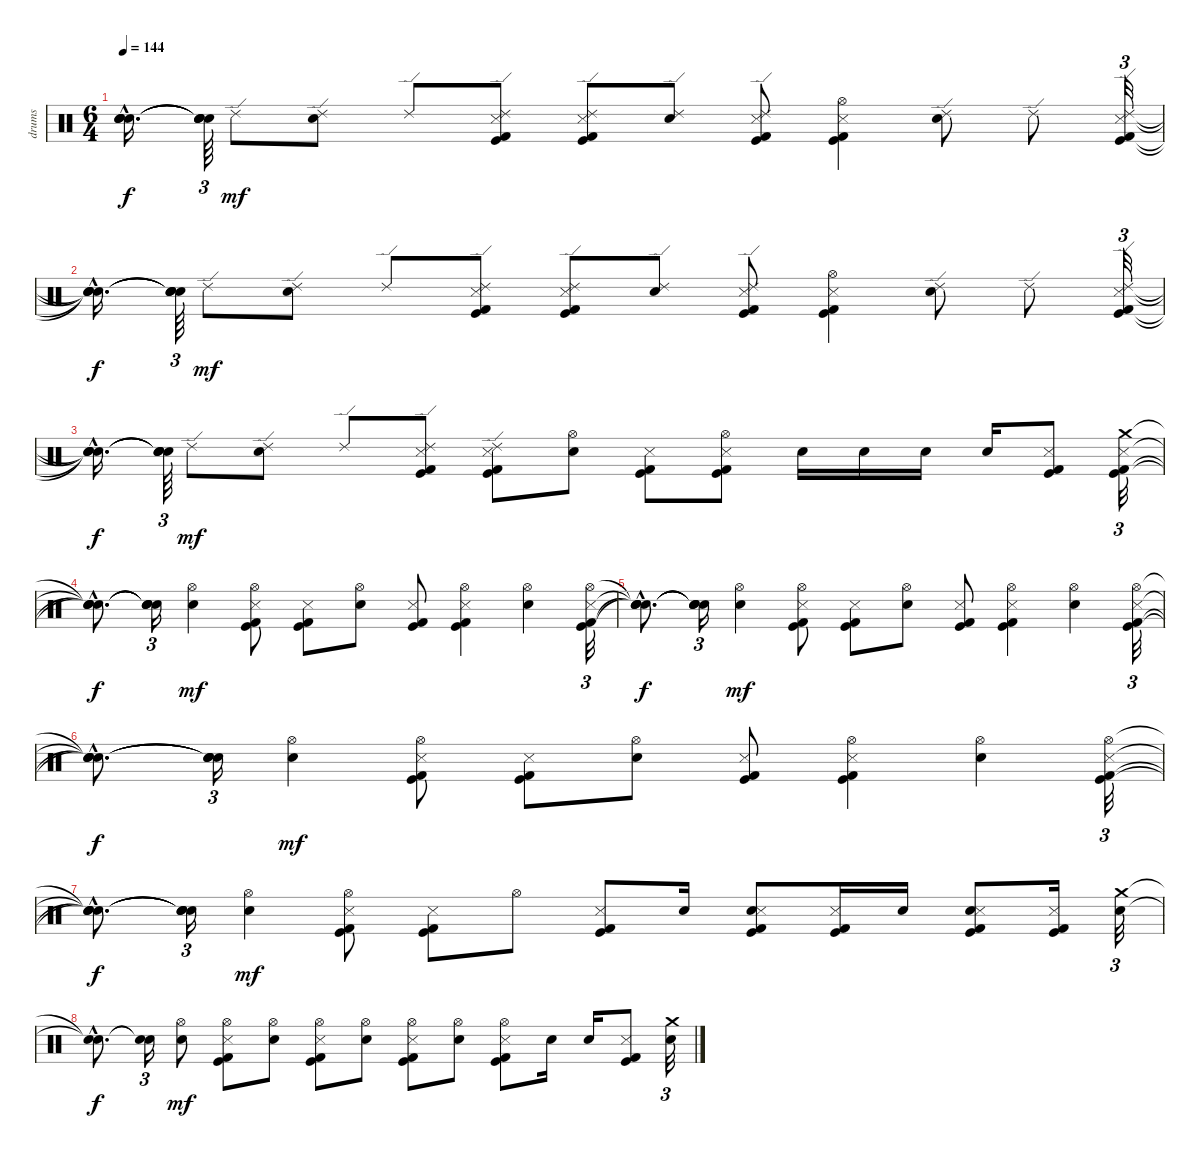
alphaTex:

\track ("drums" "drums") {instrument percussion}
\staff {score}
\articulation defaults
\ts (6 4)
\tempo 144
\clef neutral
\ks c
("Snare (hit)"{hac t} "Snare (hit)"{hac t} "Snare (hit)"{hac t} "Snare (hit)"{hac t}).16{d dy f} ("Snare (hit)"{t} "Snare (hit)"{t} "Snare (hit)"{t} "Snare (hit)"{t}).64{tu (3 2)} "Ride (edge) 2".8{dy mf} ("Snare (hit) 2" "Ride (edge) 2").8 "Ride (edge) 2".8 ("Ride (edge) 2" "Metronome (hit)" "Kick (hit)" "Kick (hit) 2").8 ("Ride (edge) 2" "Metronome (hit)" "Kick (hit)" "Kick (hit) 2").8 ("Snare (hit) 2" "Ride (edge) 2").8 ("Ride (edge) 2" "Metronome (hit)" "Kick (hit)" "Kick (hit) 2").8 ("Hi-Hat (open)" "Metronome (hit)" "Kick (hit)" "Kick (hit) 2").4 ("Snare (hit) 2" "Ride (edge) 2").8 "Ride (edge) 2".8 ("Ride (edge) 2" "Metronome (hit)" "Kick (hit)" "Kick (hit) 2").32{tu (3 2)} |
("Snare (hit)"{hac t} "Snare (hit)"{hac t} "Snare (hit)"{hac t} "Snare (hit)"{hac t}).16{d dy f} ("Snare (hit)"{t} "Snare (hit)"{t} "Snare (hit)"{t} "Snare (hit)"{t}).64{tu (3 2)} "Ride (edge) 2".8{dy mf} ("Snare (hit) 2" "Ride (edge) 2").8 "Ride (edge) 2".8 ("Ride (edge) 2" "Metronome (hit)" "Kick (hit)" "Kick (hit) 2").8 ("Ride (edge) 2" "Metronome (hit)" "Kick (hit)" "Kick (hit) 2").8 ("Snare (hit) 2" "Ride (edge) 2").8 ("Ride (edge) 2" "Metronome (hit)" "Kick (hit)" "Kick (hit) 2").8 ("Hi-Hat (open)" "Metronome (hit)" "Kick (hit)" "Kick (hit) 2").4 ("Snare (hit) 2" "Ride (edge) 2").8 "Ride (edge) 2".8 ("Ride (edge) 2" "Metronome (hit)" "Kick (hit)" "Kick (hit) 2").32{tu (3 2)} |
("Snare (hit)"{hac t} "Snare (hit)"{hac t} "Snare (hit)"{hac t} "Snare (hit)"{hac t}).16{d dy f} ("Snare (hit)"{t} "Snare (hit)"{t} "Snare (hit)"{t} "Snare (hit)"{t}).64{tu (3 2)} "Ride (edge) 2".8{dy mf} ("Snare (hit) 2" "Ride (edge) 2").8 "Ride (edge) 2".8 ("Ride (edge) 2" "Metronome (hit)" "Kick (hit)" "Kick (hit) 2").8 ("Ride (edge) 2" "Metronome (hit)" "Kick (hit)" "Kick (hit) 2").8 ("Snare (hit) 2" "Hi-Hat (open)").8 ("Metronome (hit)" "Kick (hit)" "Kick (hit) 2").8 ("Hi-Hat (open)" "Metronome (hit)" "Kick (hit)" "Kick (hit) 2").8 "Snare (hit) 2".16 "Snare (hit) 2".16 "Snare (hit) 2".16 "Snare (hit) 2".16 ("Metronome (hit)" "Kick (hit)" "Kick (hit) 2").8 ("Crash medium (hit)" "Metronome (hit)" "Kick (hit)" "Kick (hit) 2").32{tu (3 2)} |
("Snare (hit)"{hac t} "Snare (hit)"{hac t} "Snare (hit)"{hac t} "Snare (hit)"{hac t}).8{d dy f} ("Snare (hit)"{t} "Snare (hit)"{t} "Snare (hit)"{t} "Snare (hit)"{t}).16{tu (3 2)} ("Snare (hit) 2" "Hi-Hat (open)").4{dy mf} ("Hi-Hat (open)" "Metronome (hit)" "Kick (hit)" "Kick (hit) 2").8 ("Metronome (hit)" "Kick (hit)" "Kick (hit) 2").8 ("Snare (hit) 2" "Hi-Hat (open)").8 ("Metronome (hit)" "Kick (hit)" "Kick (hit) 2").8 ("Hi-Hat (open)" "Metronome (hit)" "Kick (hit)" "Kick (hit) 2").4 ("Snare (hit) 2" "Hi-Hat (open)").4 ("Hi-Hat (open)" "Metronome (hit)" "Kick (hit)" "Kick (hit) 2").32{tu (3 2)} |
("Snare (hit)"{hac t} "Snare (hit)"{hac t} "Snare (hit)"{hac t} "Snare (hit)"{hac t}).8{d dy f} ("Snare (hit)"{t} "Snare (hit)"{t} "Snare (hit)"{t} "Snare (hit)"{t}).16{tu (3 2)} ("Snare (hit) 2" "Hi-Hat (open)").4{dy mf} ("Hi-Hat (open)" "Metronome (hit)" "Kick (hit)" "Kick (hit) 2").8 ("Metronome (hit)" "Kick (hit)" "Kick (hit) 2").8 ("Snare (hit) 2" "Hi-Hat (open)").8 ("Metronome (hit)" "Kick (hit)" "Kick (hit) 2").8 ("Hi-Hat (open)" "Metronome (hit)" "Kick (hit)" "Kick (hit) 2").4 ("Snare (hit) 2" "Hi-Hat (open)").4 ("Hi-Hat (open)" "Metronome (hit)" "Kick (hit)" "Kick (hit) 2").32{tu (3 2)} |
("Snare (hit)"{hac t} "Snare (hit)"{hac t} "Snare (hit)"{hac t} "Snare (hit)"{hac t}).8{d dy f} ("Snare (hit)"{t} "Snare (hit)"{t} "Snare (hit)"{t} "Snare (hit)"{t}).16{tu (3 2)} ("Snare (hit) 2" "Hi-Hat (open)").4{dy mf} ("Hi-Hat (open)" "Metronome (hit)" "Kick (hit)" "Kick (hit) 2").8 ("Metronome (hit)" "Kick (hit)" "Kick (hit) 2").8 ("Snare (hit) 2" "Hi-Hat (open)").8 ("Metronome (hit)" "Kick (hit)" "Kick (hit) 2").8 ("Hi-Hat (open)" "Metronome (hit)" "Kick (hit)" "Kick (hit) 2").4 ("Snare (hit) 2" "Hi-Hat (open)").4 ("Hi-Hat (open)" "Metronome (hit)" "Kick (hit)" "Kick (hit) 2").32{tu (3 2)} |
("Snare (hit)"{hac t} "Snare (hit)"{hac t} "Snare (hit)"{hac t} "Snare (hit)"{hac t}).8{d dy f} ("Snare (hit)"{t} "Snare (hit)"{t} "Snare (hit)"{t} "Snare (hit)"{t}).16{tu (3 2)} ("Snare (hit) 2" "Hi-Hat (open)").4{dy mf} ("Hi-Hat (open)" "Metronome (hit)" "Kick (hit)" "Kick (hit) 2").8 ("Metronome (hit)" "Kick (hit)" "Kick (hit) 2").8 "Hi-Hat (open)".8 ("Metronome (hit)" "Kick (hit)" "Kick (hit) 2").8 "Snare (hit) 2".16 ("Snare (hit) 2" "Metronome (hit)" "Kick (hit)" "Kick (hit) 2").8 ("Metronome (hit)" "Kick (hit)" "Kick (hit) 2").16 "Snare (hit) 2".16 ("Snare (hit) 2" "Metronome (hit)" "Kick (hit)" "Kick (hit) 2").8 ("Metronome (hit)" "Kick (hit)" "Kick (hit) 2").16 ("Snare (hit) 2" "Crash medium (hit)").32{tu (3 2)} |
("Snare (hit)"{hac t} "Snare (hit)"{hac t}).8{d dy f} ("Snare (hit)"{t} "Snare (hit)"{t}).16{tu (3 2)} ("Snare (hit) 2" "Hi-Hat (open)").8{dy mf} ("Hi-Hat (open)" "Metronome (hit)" "Kick (hit)" "Kick (hit) 2").8 ("Snare (hit) 2" "Hi-Hat (open)").8 ("Hi-Hat (open)" "Metronome (hit)" "Kick (hit)" "Kick (hit) 2").8 ("Snare (hit) 2" "Hi-Hat (open)").8 ("Hi-Hat (open)" "Metronome (hit)" "Kick (hit)" "Kick (hit) 2").8 ("Snare (hit) 2" "Hi-Hat (open)").8 ("Hi-Hat (open)" "Metronome (hit)" "Kick (hit)" "Kick (hit) 2").8 "Snare (hit) 2".16 "Snare (hit) 2".16 ("Metronome (hit)" "Kick (hit)" "Kick (hit) 2").8 ("Snare (hit) 2" "Crash medium (hit)").32{tu (3 2)}
